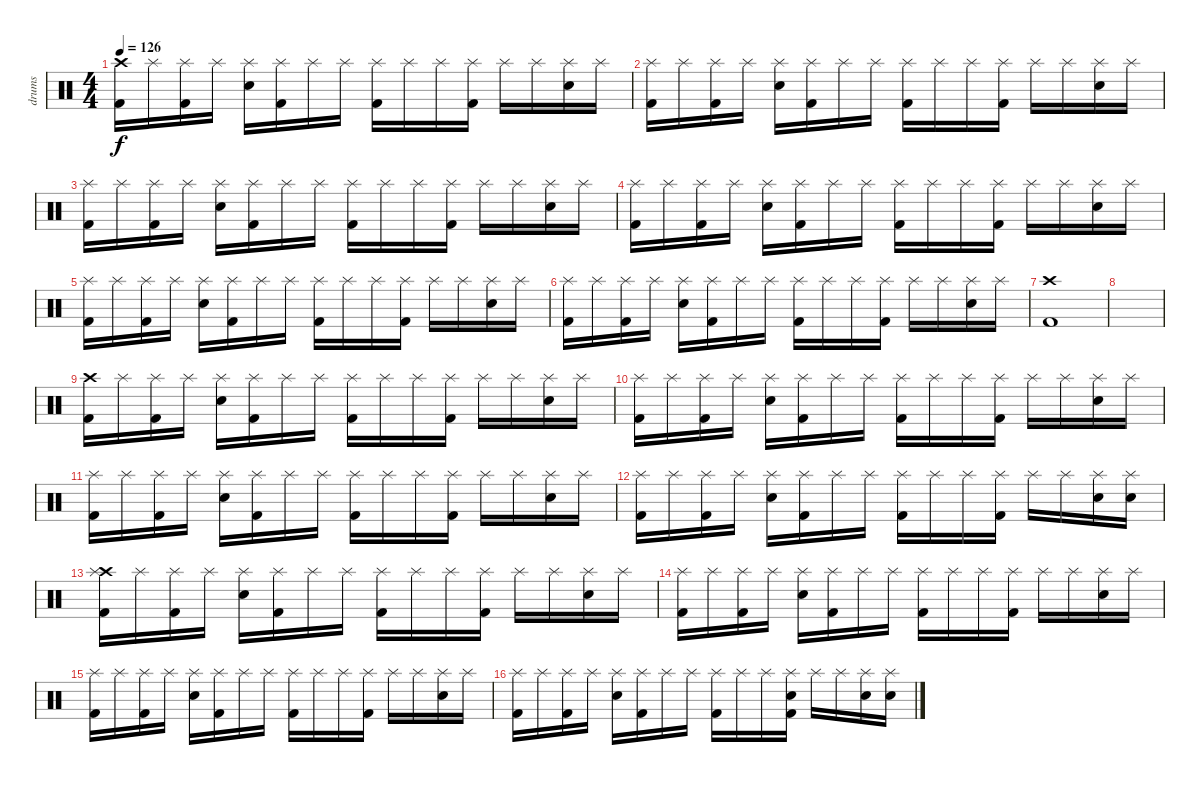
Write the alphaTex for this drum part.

\track ("drums" "drums") {instrument percussion}
\staff {score}
\articulation defaults
\ts (4 4)
\tempo 126
\clef neutral
\ks c
("Crash high (hit)" "Kick (hit) 2").16{dy f} "Splash (hit)".16 ("Splash (hit)" "Kick (hit) 2").16 "Splash (hit)".16 ("Splash (hit)" "Snare (hit) 2").16 ("Splash (hit)" "Kick (hit) 2").16 "Splash (hit)".16 "Splash (hit)".16 ("Splash (hit)" "Kick (hit) 2").16 "Splash (hit)".16 "Splash (hit)".16 ("Splash (hit)" "Kick (hit) 2").16 "Splash (hit)".16 "Splash (hit)".16 ("Splash (hit)" "Snare (hit) 2").16 "Splash (hit)".16 |
("Splash (hit)" "Kick (hit) 2").16 "Splash (hit)".16 ("Splash (hit)" "Kick (hit) 2").16 "Splash (hit)".16 ("Splash (hit)" "Snare (hit) 2").16 ("Splash (hit)" "Kick (hit) 2").16 "Splash (hit)".16 "Splash (hit)".16 ("Splash (hit)" "Kick (hit) 2").16 "Splash (hit)".16 "Splash (hit)".16 ("Splash (hit)" "Kick (hit) 2").16 "Splash (hit)".16 "Splash (hit)".16 ("Splash (hit)" "Snare (hit) 2").16 "Splash (hit)".16 |
("Splash (hit)" "Kick (hit) 2").16 "Splash (hit)".16 ("Splash (hit)" "Kick (hit) 2").16 "Splash (hit)".16 ("Splash (hit)" "Snare (hit) 2").16 ("Splash (hit)" "Kick (hit) 2").16 "Splash (hit)".16 "Splash (hit)".16 ("Splash (hit)" "Kick (hit) 2").16 "Splash (hit)".16 "Splash (hit)".16 ("Splash (hit)" "Kick (hit) 2").16 "Splash (hit)".16 "Splash (hit)".16 ("Splash (hit)" "Snare (hit) 2").16 "Splash (hit)".16 |
("Splash (hit)" "Kick (hit) 2").16 "Splash (hit)".16 ("Splash (hit)" "Kick (hit) 2").16 "Splash (hit)".16 ("Splash (hit)" "Snare (hit) 2").16 ("Splash (hit)" "Kick (hit) 2").16 "Splash (hit)".16 "Splash (hit)".16 ("Splash (hit)" "Kick (hit) 2").16 "Splash (hit)".16 "Splash (hit)".16 ("Splash (hit)" "Kick (hit) 2").16 "Splash (hit)".16 "Splash (hit)".16 ("Splash (hit)" "Snare (hit) 2").16 "Splash (hit)".16 |
("Splash (hit)" "Kick (hit) 2").16 "Splash (hit)".16 ("Splash (hit)" "Kick (hit) 2").16 "Splash (hit)".16 ("Splash (hit)" "Snare (hit) 2").16 ("Splash (hit)" "Kick (hit) 2").16 "Splash (hit)".16 "Splash (hit)".16 ("Splash (hit)" "Kick (hit) 2").16 "Splash (hit)".16 "Splash (hit)".16 ("Splash (hit)" "Kick (hit) 2").16 "Splash (hit)".16 "Splash (hit)".16 ("Splash (hit)" "Snare (hit) 2").16 "Splash (hit)".16 |
("Splash (hit)" "Kick (hit) 2").16 "Splash (hit)".16 ("Splash (hit)" "Kick (hit) 2").16 "Splash (hit)".16 ("Splash (hit)" "Snare (hit) 2").16 ("Splash (hit)" "Kick (hit) 2").16 "Splash (hit)".16 "Splash (hit)".16 ("Splash (hit)" "Kick (hit) 2").16 "Splash (hit)".16 "Splash (hit)".16 ("Splash (hit)" "Kick (hit) 2").16 "Splash (hit)".16 "Splash (hit)".16 ("Splash (hit)" "Snare (hit) 2").16 "Splash (hit)".16 |
("Kick (hit) 2" "Crash high (hit)").1 |
|
("Crash high (hit)" "Kick (hit) 2").16 "Splash (hit)".16 ("Splash (hit)" "Kick (hit) 2").16 "Splash (hit)".16 ("Splash (hit)" "Snare (hit) 2").16 ("Splash (hit)" "Kick (hit) 2").16 "Splash (hit)".16 "Splash (hit)".16 ("Splash (hit)" "Kick (hit) 2").16 "Splash (hit)".16 "Splash (hit)".16 ("Splash (hit)" "Kick (hit) 2").16 "Splash (hit)".16 "Splash (hit)".16 ("Splash (hit)" "Snare (hit) 2").16 "Splash (hit)".16 |
("Splash (hit)" "Kick (hit) 2").16 "Splash (hit)".16 ("Splash (hit)" "Kick (hit) 2").16 "Splash (hit)".16 ("Splash (hit)" "Snare (hit) 2").16 ("Splash (hit)" "Kick (hit) 2").16 "Splash (hit)".16 "Splash (hit)".16 ("Splash (hit)" "Kick (hit) 2").16 "Splash (hit)".16 "Splash (hit)".16 ("Splash (hit)" "Kick (hit) 2").16 "Splash (hit)".16 "Splash (hit)".16 ("Splash (hit)" "Snare (hit) 2").16 "Splash (hit)".16 |
("Splash (hit)" "Kick (hit) 2").16 "Splash (hit)".16 ("Splash (hit)" "Kick (hit) 2").16 "Splash (hit)".16 ("Splash (hit)" "Snare (hit) 2").16 ("Splash (hit)" "Kick (hit) 2").16 "Splash (hit)".16 "Splash (hit)".16 ("Splash (hit)" "Kick (hit) 2").16 "Splash (hit)".16 "Splash (hit)".16 ("Splash (hit)" "Kick (hit) 2").16 "Splash (hit)".16 "Splash (hit)".16 ("Splash (hit)" "Snare (hit) 2").16 "Splash (hit)".16 |
("Splash (hit)" "Kick (hit) 2").16 "Splash (hit)".16 ("Splash (hit)" "Kick (hit) 2").16 "Splash (hit)".16 ("Splash (hit)" "Snare (hit) 2").16 ("Splash (hit)" "Kick (hit) 2").16 "Splash (hit)".16 "Splash (hit)".16 ("Splash (hit)" "Kick (hit) 2").16 "Splash (hit)".16 "Splash (hit)".16 ("Splash (hit)" "Kick (hit) 2").16 "Splash (hit)".16 "Splash (hit)".16 ("Splash (hit)" "Snare (hit) 2").16 ("Splash (hit)" "Snare (hit) 2").16 |
("Crash high (hit)" "Splash (hit)" "Kick (hit) 2").16 "Splash (hit)".16 ("Splash (hit)" "Kick (hit) 2").16 "Splash (hit)".16 ("Splash (hit)" "Snare (hit) 2").16 ("Splash (hit)" "Kick (hit) 2").16 "Splash (hit)".16 "Splash (hit)".16 ("Splash (hit)" "Kick (hit) 2").16 "Splash (hit)".16 "Splash (hit)".16 ("Splash (hit)" "Kick (hit) 2").16 "Splash (hit)".16 "Splash (hit)".16 ("Splash (hit)" "Snare (hit) 2").16 "Splash (hit)".16 |
("Splash (hit)" "Kick (hit) 2").16 "Splash (hit)".16 ("Splash (hit)" "Kick (hit) 2").16 "Splash (hit)".16 ("Splash (hit)" "Snare (hit) 2").16 ("Splash (hit)" "Kick (hit) 2").16 "Splash (hit)".16 "Splash (hit)".16 ("Splash (hit)" "Kick (hit) 2").16 "Splash (hit)".16 "Splash (hit)".16 ("Splash (hit)" "Kick (hit) 2").16 "Splash (hit)".16 "Splash (hit)".16 ("Splash (hit)" "Snare (hit) 2").16 "Splash (hit)".16 |
("Splash (hit)" "Kick (hit) 2").16 "Splash (hit)".16 ("Splash (hit)" "Kick (hit) 2").16 "Splash (hit)".16 ("Splash (hit)" "Snare (hit) 2").16 ("Splash (hit)" "Kick (hit) 2").16 "Splash (hit)".16 "Splash (hit)".16 ("Splash (hit)" "Kick (hit) 2").16 "Splash (hit)".16 "Splash (hit)".16 ("Splash (hit)" "Kick (hit) 2").16 "Splash (hit)".16 "Splash (hit)".16 ("Splash (hit)" "Snare (hit) 2").16 "Splash (hit)".16 |
("Splash (hit)" "Kick (hit) 2").16 "Splash (hit)".16 ("Splash (hit)" "Kick (hit) 2").16 "Splash (hit)".16 ("Splash (hit)" "Snare (hit) 2").16 ("Splash (hit)" "Kick (hit) 2").16 "Splash (hit)".16 "Splash (hit)".16 ("Splash (hit)" "Kick (hit) 2").16 "Splash (hit)".16 "Splash (hit)".16 ("Splash (hit)" "Kick (hit) 2" "Snare (hit) 2").16 "Splash (hit)".16 "Splash (hit)".16 ("Splash (hit)" "Snare (hit) 2").16 ("Splash (hit)" "Snare (hit) 2").16
